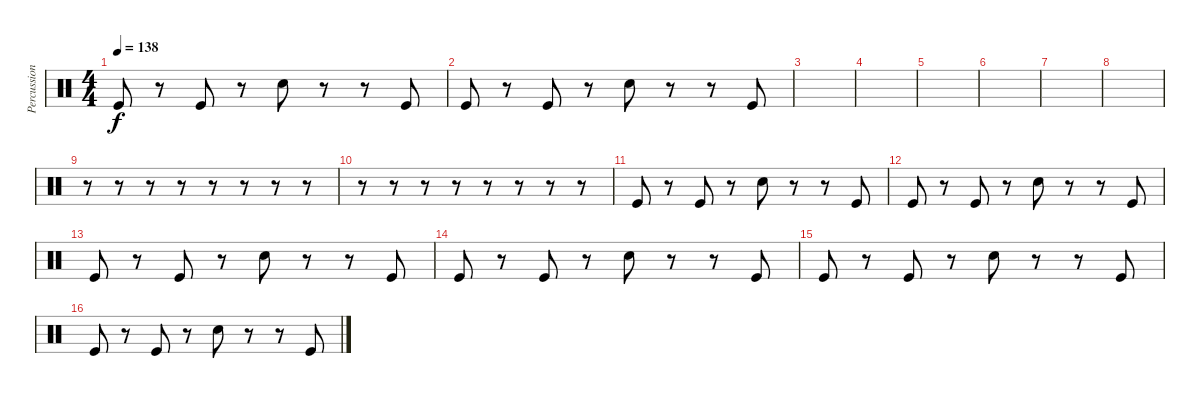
\track ("Percussions" "Percussion") {instrument percussion}
\staff {score}
\articulation defaults
\ts (4 4)
\tempo 138
\clef neutral
\ks c "Kick (hit)".8{dy f}
r.8 "Kick (hit)".8 r.8 "Electric Snare (hit)".8 r.8 r.8 "Kick (hit)".8 |
"Kick (hit)".8 r.8 "Kick (hit)".8 r.8 "Electric Snare (hit)".8 r.8 r.8 "Kick (hit)".8 |
|
|
|
|
|
|
r.8 r.8 r.8 r.8 r.8 r.8 r.8 r.8 |
r.8 r.8 r.8 r.8 r.8 r.8 r.8 r.8 |
"Kick (hit)".8 r.8 "Kick (hit)".8 r.8 "Electric Snare (hit)".8 r.8 r.8 "Kick (hit)".8 |
"Kick (hit)".8 r.8 "Kick (hit)".8 r.8 "Electric Snare (hit)".8 r.8 r.8 "Kick (hit)".8 |
"Kick (hit)".8 r.8 "Kick (hit)".8 r.8 "Electric Snare (hit)".8 r.8 r.8 "Kick (hit)".8 |
"Kick (hit)".8 r.8 "Kick (hit)".8 r.8 "Electric Snare (hit)".8 r.8 r.8 "Kick (hit)".8 |
"Kick (hit)".8 r.8 "Kick (hit)".8 r.8 "Electric Snare (hit)".8 r.8 r.8 "Kick (hit)".8 |
"Kick (hit)".8 r.8 "Kick (hit)".8 r.8 "Electric Snare (hit)".8 r.8 r.8 "Kick (hit)".8
